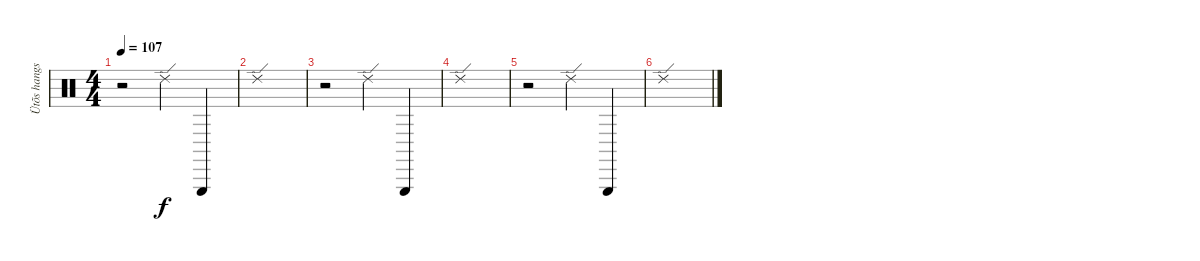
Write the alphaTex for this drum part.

\track ("Ütõs hangszer" "Ütõs hangs") {instrument percussion}
\staff {score}
\articulation defaults
\ts (4 4)
\tempo 107
\clef neutral
\ks c
r.2{dy f} "Ride (edge) 2".4 "Triangle (hit)".4 |
"Ride (edge) 2".1 |
r.2 "Ride (edge) 2".4 "Triangle (hit)".4 |
"Ride (edge) 2".1 |
r.2 "Ride (edge) 2".4 "Triangle (hit)".4 |
"Ride (edge) 2".1
